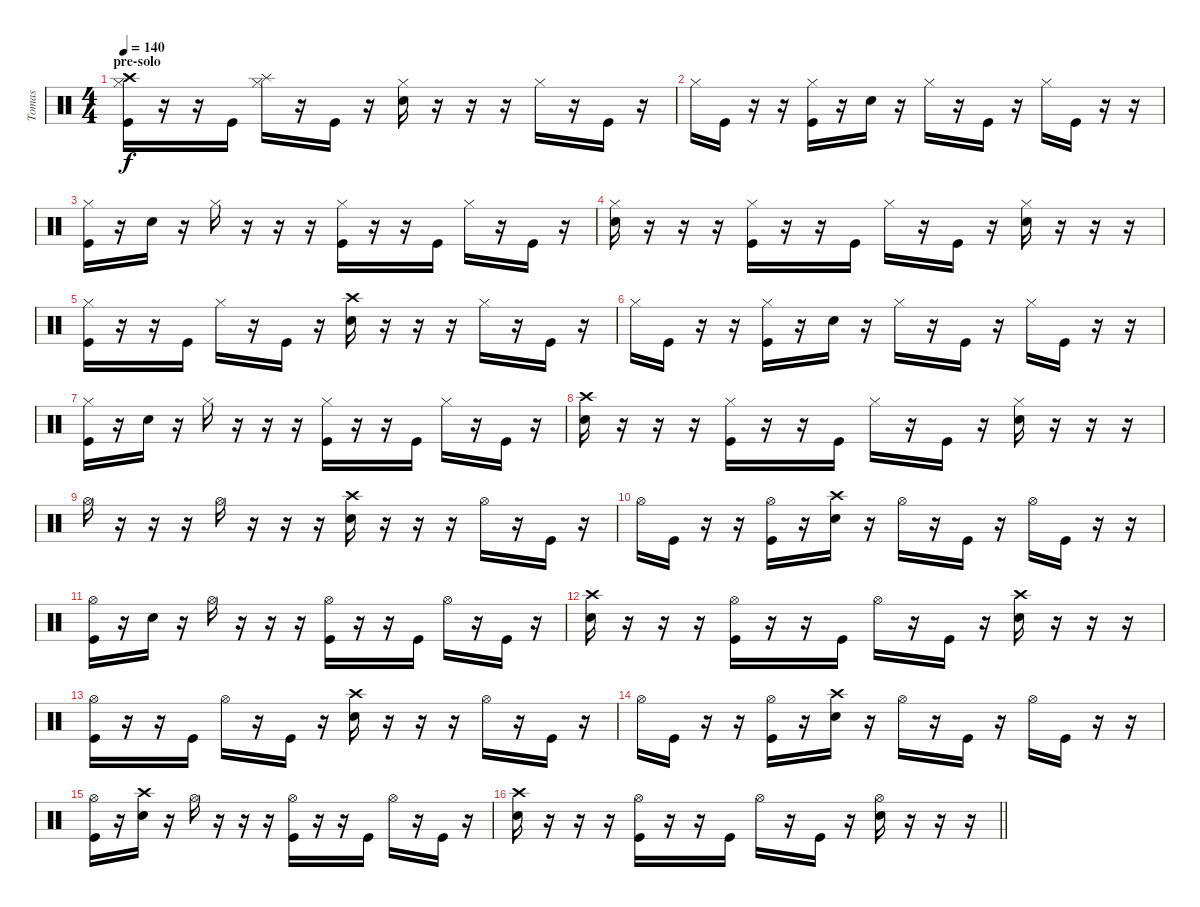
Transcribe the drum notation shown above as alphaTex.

\track ("Tomas" "Tomas") {instrument percussion}
\staff {score}
\articulation defaults
\ts (4 4)
\section ("" "pre-solo")
\tempo 140
\clef neutral
\ks c
("Crash high (hit)" "Hi-Hat (closed)" "Kick (hit)").16{dy f} r.16 r.16 "Kick (hit)".16 ("Splash (hit)" "Hi-Hat (closed)").16 r.16 "Kick (hit)".16 r.16 ("Hi-Hat (closed)" "Electric Snare (hit)").16 r.16 r.16 r.16 "Hi-Hat (closed)".16 r.16 "Kick (hit)".16 r.16 |
"Hi-Hat (closed)".16 "Kick (hit)".16 r.16 r.16 ("Hi-Hat (closed)" "Kick (hit)").16 r.16 "Electric Snare (hit)".16 r.16 "Hi-Hat (closed)".16 r.16 "Kick (hit)".16 r.16 "Hi-Hat (closed)".16 "Kick (hit)".16 r.16 r.16 |
("Hi-Hat (closed)" "Kick (hit)").16 r.16 "Electric Snare (hit)".16 r.16 "Hi-Hat (closed)".16 r.16 r.16 r.16 ("Hi-Hat (closed)" "Kick (hit)").16 r.16 r.16 "Kick (hit)".16 "Hi-Hat (closed)".16 r.16 "Kick (hit)".16 r.16 |
("Hi-Hat (closed)" "Electric Snare (hit)").16 r.16 r.16 r.16 ("Hi-Hat (closed)" "Kick (hit)").16 r.16 r.16 "Kick (hit)".16 "Hi-Hat (closed)".16 r.16 "Kick (hit)".16 r.16 ("Hi-Hat (closed)" "Electric Snare (hit)").16 r.16 r.16 r.16 |
("Hi-Hat (closed)" "Kick (hit)").16 r.16 r.16 "Kick (hit)".16 "Hi-Hat (closed)".16 r.16 "Kick (hit)".16 r.16 ("Crash high (hit)" "Electric Snare (hit)").16 r.16 r.16 r.16 "Hi-Hat (closed)".16 r.16 "Kick (hit)".16 r.16 |
"Hi-Hat (closed)".16 "Kick (hit)".16 r.16 r.16 ("Hi-Hat (closed)" "Kick (hit)").16 r.16 "Electric Snare (hit)".16 r.16 "Hi-Hat (closed)".16 r.16 "Kick (hit)".16 r.16 "Hi-Hat (closed)".16 "Kick (hit)".16 r.16 r.16 |
("Hi-Hat (closed)" "Kick (hit)").16 r.16 "Electric Snare (hit)".16 r.16 "Hi-Hat (closed)".16 r.16 r.16 r.16 ("Hi-Hat (closed)" "Kick (hit)").16 r.16 r.16 "Kick (hit)".16 "Hi-Hat (closed)".16 r.16 "Kick (hit)".16 r.16 |
("Crash high (hit)" "Electric Snare (hit)").16 r.16 r.16 r.16 ("Hi-Hat (closed)" "Kick (hit)").16 r.16 r.16 "Kick (hit)".16 "Hi-Hat (closed)".16 r.16 "Kick (hit)".16 r.16 ("Hi-Hat (closed)" "Electric Snare (hit)").16 r.16 r.16 r.16 |
"Hi-Hat (open)".16 r.16 r.16 r.16 "Hi-Hat (open)".16 r.16 r.16 r.16 ("Crash high (hit)" "Electric Snare (hit)").16 r.16 r.16 r.16 "Hi-Hat (open)".16 r.16 "Kick (hit)".16 r.16 |
"Hi-Hat (open)".16 "Kick (hit)".16 r.16 r.16 ("Hi-Hat (open)" "Kick (hit)").16 r.16 ("Crash high (hit)" "Electric Snare (hit)").16 r.16 "Hi-Hat (open)".16 r.16 "Kick (hit)".16 r.16 "Hi-Hat (open)".16 "Kick (hit)".16 r.16 r.16 |
("Hi-Hat (open)" "Kick (hit)").16 r.16 "Electric Snare (hit)".16 r.16 "Hi-Hat (open)".16 r.16 r.16 r.16 ("Hi-Hat (open)" "Kick (hit)").16 r.16 r.16 "Kick (hit)".16 "Hi-Hat (open)".16 r.16 "Kick (hit)".16 r.16 |
("Crash high (hit)" "Electric Snare (hit)").16 r.16 r.16 r.16 ("Hi-Hat (open)" "Kick (hit)").16 r.16 r.16 "Kick (hit)".16 "Hi-Hat (open)".16 r.16 "Kick (hit)".16 r.16 ("Crash high (hit)" "Electric Snare (hit)").16 r.16 r.16 r.16 |
("Hi-Hat (open)" "Kick (hit)").16 r.16 r.16 "Kick (hit)".16 "Hi-Hat (open)".16 r.16 "Kick (hit)".16 r.16 ("Crash high (hit)" "Electric Snare (hit)").16 r.16 r.16 r.16 "Hi-Hat (open)".16 r.16 "Kick (hit)".16 r.16 |
"Hi-Hat (open)".16 "Kick (hit)".16 r.16 r.16 ("Hi-Hat (open)" "Kick (hit)").16 r.16 ("Crash high (hit)" "Electric Snare (hit)").16 r.16 "Hi-Hat (open)".16 r.16 "Kick (hit)".16 r.16 "Hi-Hat (open)".16 "Kick (hit)".16 r.16 r.16 |
("Hi-Hat (open)" "Kick (hit)").16 r.16 ("Crash high (hit)" "Electric Snare (hit)").16 r.16 "Hi-Hat (open)".16 r.16 r.16 r.16 ("Hi-Hat (open)" "Kick (hit)").16 r.16 r.16 "Kick (hit)".16 "Hi-Hat (open)".16 r.16 "Kick (hit)".16 r.16 |
\barLineRight lightlight
("Crash high (hit)" "Electric Snare (hit)").16 r.16 r.16 r.16 ("Hi-Hat (open)" "Kick (hit)").16 r.16 r.16 "Kick (hit)".16 "Hi-Hat (open)".16 r.16 "Kick (hit)".16 r.16 ("Hi-Hat (open)" "Electric Snare (hit)").16 r.16 r.16 r.16
